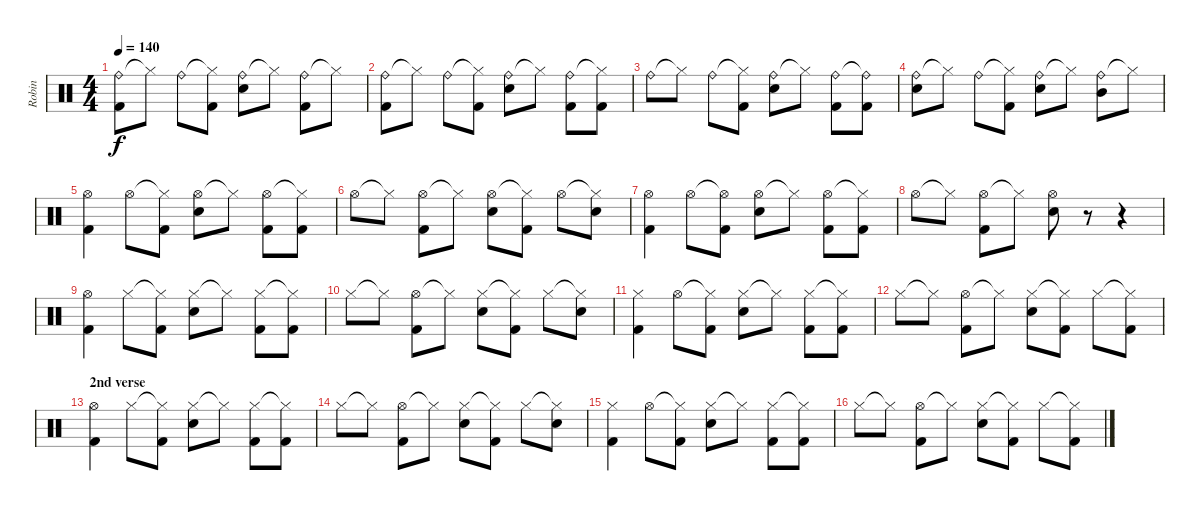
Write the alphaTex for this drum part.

\track ("Robin" "Robin") {instrument percussion}
\staff {score}
\articulation defaults
\ts (4 4)
\tempo 140
\clef neutral
\ks c
("Ride (bell)" "Kick (hit) 2").8{dy f} "Hi-Hat (closed)"{t}.8 "Ride (bell)".8 ("Hi-Hat (closed)"{t} "Kick (hit) 2").8 ("Ride (bell)" "Snare (hit) 2").8 "Hi-Hat (closed)"{t}.8 ("Ride (bell)" "Kick (hit) 2").8 "Hi-Hat (closed)"{t}.8 |
("Ride (bell)" "Kick (hit) 2").8 "Hi-Hat (closed)"{t}.8 "Ride (bell)".8 ("Hi-Hat (closed)"{t} "Kick (hit) 2").8 ("Ride (bell)" "Snare (hit) 2").8 "Hi-Hat (closed)"{t}.8 ("Ride (bell)" "Kick (hit) 2").8 ("Hi-Hat (closed)"{t} "Kick (hit) 2").8 |
"Ride (bell)".8 "Hi-Hat (closed)"{t}.8 "Ride (bell)".8 ("Hi-Hat (closed)"{t} "Kick (hit) 2").8 ("Ride (bell)" "Snare (hit) 2").8 "Hi-Hat (closed)"{t}.8 ("Ride (bell)" "Kick (hit) 2").8 ("Ride (bell)"{t} "Kick (hit) 2").8 |
("Ride (bell)" "Snare (hit) 2").8 "Hi-Hat (closed)"{t}.8 "Ride (bell)".8 ("Hi-Hat (closed)"{t} "Kick (hit) 2").8 ("Ride (bell)" "Snare (hit) 2").8 "Hi-Hat (closed)"{t}.8 ("Ride (bell)" "Mid Tom (hit)").8 "Hi-Hat (closed)"{t}.8 |
("Hi-Hat (open)" "Kick (hit) 2").4 "Hi-Hat (open)".8 ("Hi-Hat (closed)"{t} "Kick (hit) 2").8 ("Hi-Hat (open)" "Snare (hit) 2").8 "Hi-Hat (closed)"{t}.8 ("Hi-Hat (open)" "Kick (hit) 2").8 ("Hi-Hat (closed)"{t} "Kick (hit) 2").8 |
"Hi-Hat (open)".8 "Hi-Hat (closed)"{t}.8 ("Hi-Hat (open)" "Kick (hit) 2").8 "Hi-Hat (closed)"{t}.8 ("Hi-Hat (open)" "Snare (hit) 2").8 ("Hi-Hat (closed)"{t} "Kick (hit) 2").8 "Hi-Hat (open)".8 ("Hi-Hat (closed)"{t} "Snare (hit) 2").8 |
("Hi-Hat (open)" "Kick (hit) 2").4 "Hi-Hat (open)".8 ("Hi-Hat (open)"{t} "Kick (hit) 2").8 ("Hi-Hat (open)" "Snare (hit) 2").8 "Hi-Hat (closed)"{t}.8 ("Hi-Hat (open)" "Kick (hit) 2").8 ("Hi-Hat (closed)"{t} "Kick (hit) 2").8 |
"Hi-Hat (open)".8 "Hi-Hat (closed)"{t}.8 ("Hi-Hat (open)" "Kick (hit) 2").8 "Hi-Hat (closed)"{t}.8 ("Hi-Hat (open)" "Snare (hit) 2").8 r.8 r.4 |
("Hi-Hat (open)" "Kick (hit) 2").4 "Hi-Hat (closed)".8 ("Hi-Hat (closed)"{t} "Kick (hit) 2").8 ("Hi-Hat (closed)" "Snare (hit) 2").8 "Hi-Hat (closed)"{t}.8 ("Hi-Hat (closed)" "Kick (hit) 2").8 ("Hi-Hat (closed)"{t} "Kick (hit) 2").8 |
"Hi-Hat (closed)".8 "Hi-Hat (closed)"{t}.8 ("Hi-Hat (open)" "Kick (hit) 2").8 "Hi-Hat (closed)"{t}.8 ("Hi-Hat (closed)" "Snare (hit) 2").8 ("Hi-Hat (closed)"{t} "Kick (hit) 2").8 "Hi-Hat (closed)".8 ("Hi-Hat (closed)"{t} "Snare (hit) 2").8 |
("Hi-Hat (closed)" "Kick (hit) 2").4 "Hi-Hat (open)".8 ("Hi-Hat (closed)"{t} "Kick (hit) 2").8 ("Hi-Hat (closed)" "Snare (hit) 2").8 "Hi-Hat (closed)"{t}.8 ("Hi-Hat (closed)" "Kick (hit) 2").8 ("Hi-Hat (closed)"{t} "Kick (hit) 2").8 |
"Hi-Hat (closed)".8 "Hi-Hat (closed)"{t}.8 ("Hi-Hat (open)" "Kick (hit) 2").8 "Hi-Hat (closed)"{t}.8 ("Hi-Hat (closed)" "Snare (hit) 2").8 ("Hi-Hat (closed)"{t} "Kick (hit) 2").8 "Hi-Hat (closed)".8 ("Hi-Hat (closed)"{t} "Kick (hit) 2").8 |
\section ("" "2nd verse")
("Hi-Hat (open)" "Kick (hit) 2").4 "Hi-Hat (closed)".8 ("Hi-Hat (closed)"{t} "Kick (hit) 2").8 ("Hi-Hat (closed)" "Snare (hit) 2").8 "Hi-Hat (closed)"{t}.8 ("Hi-Hat (closed)" "Kick (hit) 2").8 ("Hi-Hat (closed)"{t} "Kick (hit) 2").8 |
"Hi-Hat (closed)".8 "Hi-Hat (closed)"{t}.8 ("Hi-Hat (open)" "Kick (hit) 2").8 "Hi-Hat (closed)"{t}.8 ("Hi-Hat (closed)" "Snare (hit) 2").8 ("Hi-Hat (closed)"{t} "Kick (hit) 2").8 "Hi-Hat (closed)".8 ("Hi-Hat (closed)"{t} "Snare (hit) 2").8 |
("Hi-Hat (closed)" "Kick (hit) 2").4 "Hi-Hat (open)".8 ("Hi-Hat (closed)"{t} "Kick (hit) 2").8 ("Hi-Hat (closed)" "Snare (hit) 2").8 "Hi-Hat (closed)"{t}.8 ("Hi-Hat (closed)" "Kick (hit) 2").8 ("Hi-Hat (closed)"{t} "Kick (hit) 2").8 |
"Hi-Hat (closed)".8 "Hi-Hat (closed)"{t}.8 ("Hi-Hat (open)" "Kick (hit) 2").8 "Hi-Hat (closed)"{t}.8 ("Hi-Hat (closed)" "Snare (hit) 2").8 ("Hi-Hat (closed)"{t} "Kick (hit) 2").8 "Hi-Hat (closed)".8 ("Hi-Hat (closed)"{t} "Kick (hit) 2").8
